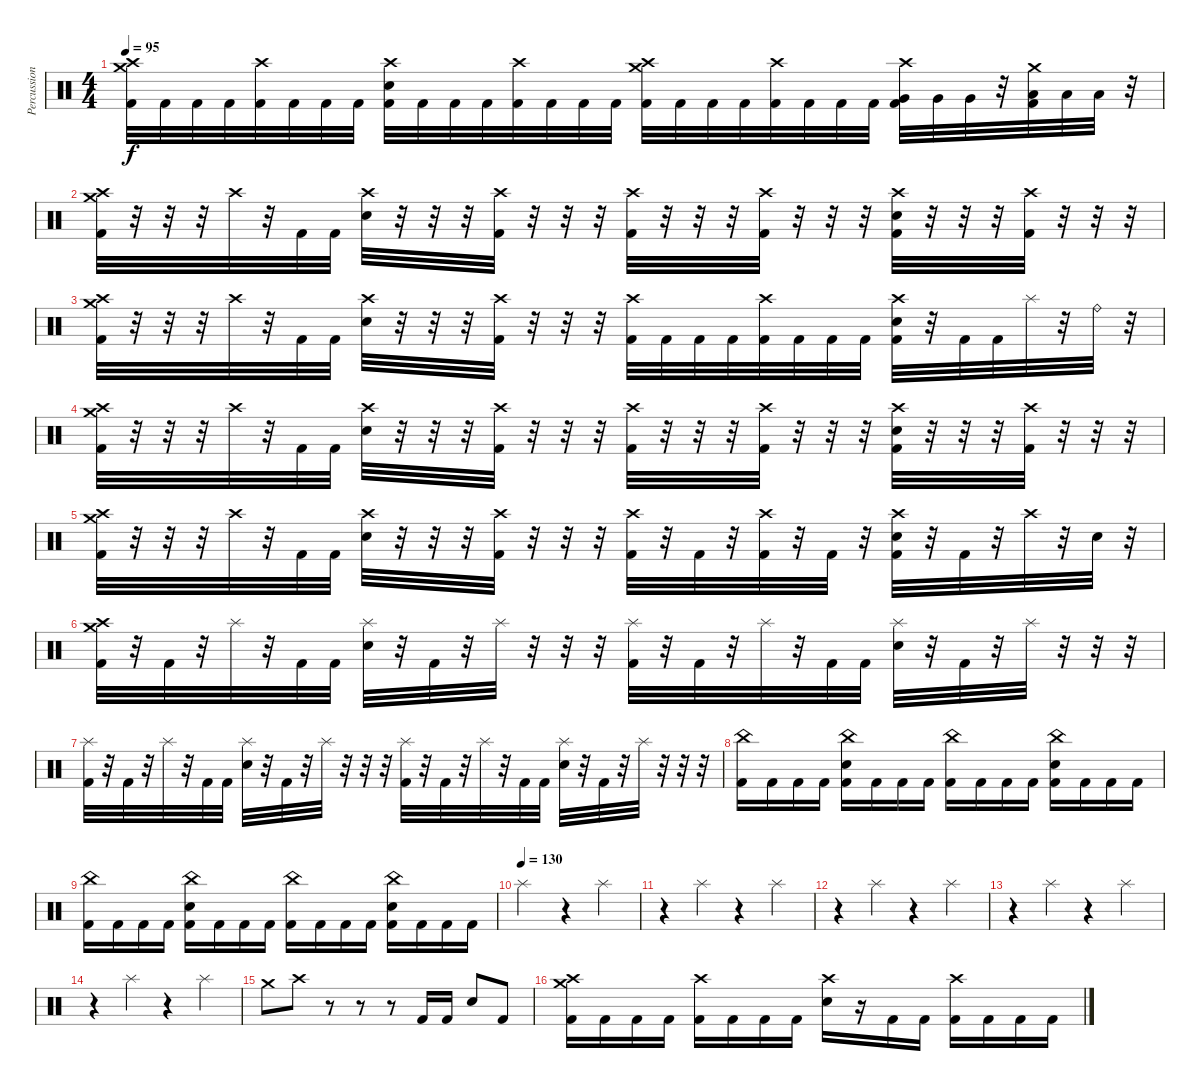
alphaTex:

\track ("Percussion" "Percussion") {instrument percussion}
\staff {score}
\articulation defaults
\ts (4 4)
\tempo 95
\clef neutral
\ks c
("Crash medium (hit)" "Crash high (hit)" "Kick (hit) 2").32{dy f} "Kick (hit) 2".32 "Kick (hit) 2".32 "Kick (hit) 2".32 ("Crash high (hit)" "Kick (hit) 2").32 "Kick (hit) 2".32 "Kick (hit) 2".32 "Kick (hit) 2".32 ("Crash high (hit)" "Electric Snare (hit)" "Kick (hit) 2").32 "Kick (hit) 2".32 "Kick (hit) 2".32 "Kick (hit) 2".32 ("Crash high (hit)" "Kick (hit) 2").32 "Kick (hit) 2".32 "Kick (hit) 2".32 "Kick (hit) 2".32 ("Crash medium (hit)" "Crash high (hit)" "Kick (hit) 2").32 "Kick (hit) 2".32 "Kick (hit) 2".32 "Kick (hit) 2".32 ("Crash high (hit)" "Kick (hit) 2").32 "Kick (hit) 2".32 "Kick (hit) 2".32 "Kick (hit) 2".32 ("Crash high (hit)" "Very Low Tom (hit)" "Kick (hit) 2").32 "Very Low Tom (hit)".32 "Very Low Tom (hit)".32 r.32 ("Crash medium (hit)" "Low Floor Tom (hit)" "Kick (hit) 2").32 "Low Floor Tom (hit)".32 "Low Floor Tom (hit)".32 r.32 |
("Crash medium (hit)" "Crash high (hit)" "Kick (hit) 2").32 r.32 r.32 r.32 "Crash high (hit)".32 r.32 "Kick (hit) 2".32 "Kick (hit) 2".32 ("Crash high (hit)" "Electric Snare (hit)").32 r.32 r.32 r.32 ("Crash high (hit)" "Kick (hit) 2").32 r.32 r.32 r.32 ("Crash high (hit)" "Kick (hit) 2").32 r.32 r.32 r.32 ("Crash high (hit)" "Kick (hit) 2").32 r.32 r.32 r.32 ("Crash high (hit)" "Electric Snare (hit)" "Kick (hit) 2").32 r.32 r.32 r.32 ("Crash high (hit)" "Kick (hit) 2").32 r.32 r.32 r.32 |
("Crash medium (hit)" "Crash high (hit)" "Kick (hit) 2").32 r.32 r.32 r.32 "Crash high (hit)".32 r.32 "Kick (hit) 2".32 "Kick (hit) 2".32 ("Crash high (hit)" "Electric Snare (hit)").32 r.32 r.32 r.32 ("Crash high (hit)" "Kick (hit) 2").32 r.32 r.32 r.32 ("Crash high (hit)" "Kick (hit) 2").32 "Kick (hit) 2".32 "Kick (hit) 2".32 "Kick (hit) 2".32 ("Crash high (hit)" "Kick (hit) 2").32 "Kick (hit) 2".32 "Kick (hit) 2".32 "Kick (hit) 2".32 ("Crash high (hit)" "Electric Snare (hit)" "Kick (hit) 2").32 r.32 "Kick (hit) 2".32 "Kick (hit) 2".32 "Splash (hit)".32 r.32 "Ride (bell)".32 r.32 |
("Crash medium (hit)" "Crash high (hit)" "Kick (hit) 2").32 r.32 r.32 r.32 "Crash high (hit)".32 r.32 "Kick (hit) 2".32 "Kick (hit) 2".32 ("Crash high (hit)" "Electric Snare (hit)").32 r.32 r.32 r.32 ("Crash high (hit)" "Kick (hit) 2").32 r.32 r.32 r.32 ("Crash high (hit)" "Kick (hit) 2").32 r.32 r.32 r.32 ("Crash high (hit)" "Kick (hit) 2").32 r.32 r.32 r.32 ("Crash high (hit)" "Electric Snare (hit)" "Kick (hit) 2").32 r.32 r.32 r.32 ("Crash high (hit)" "Kick (hit) 2").32 r.32 r.32 r.32 |
("Crash medium (hit)" "Crash high (hit)" "Kick (hit) 2").32 r.32 r.32 r.32 "Crash high (hit)".32 r.32 "Kick (hit) 2".32 "Kick (hit) 2".32 ("Crash high (hit)" "Electric Snare (hit)").32 r.32 r.32 r.32 ("Crash high (hit)" "Kick (hit) 2").32 r.32 r.32 r.32 ("Crash high (hit)" "Kick (hit) 2").32 r.32 "Kick (hit) 2".32 r.32 ("Crash high (hit)" "Kick (hit) 2").32 r.32 "Kick (hit) 2".32 r.32 ("Crash high (hit)" "Electric Snare (hit)" "Kick (hit) 2").32 r.32 "Kick (hit) 2".32 r.32 "Crash high (hit)".32 r.32 "Electric Snare (hit)".32 r.32 |
("Crash medium (hit)" "Crash high (hit)" "Kick (hit) 2").32 r.32 "Kick (hit) 2".32 r.32 "Splash (hit)".32 r.32 "Kick (hit) 2".32 "Kick (hit) 2".32 ("Splash (hit)" "Electric Snare (hit)").32 r.32 "Kick (hit) 2".32 r.32 "Splash (hit)".32 r.32 r.32 r.32 ("Splash (hit)" "Kick (hit) 2").32 r.32 "Kick (hit) 2".32 r.32 "Splash (hit)".32 r.32 "Kick (hit) 2".32 "Kick (hit) 2".32 ("Splash (hit)" "Electric Snare (hit)").32 r.32 "Kick (hit) 2".32 r.32 "Splash (hit)".32 r.32 r.32 r.32 |
("Splash (hit)" "Kick (hit) 2").32 r.32 "Kick (hit) 2".32 r.32 "Splash (hit)".32 r.32 "Kick (hit) 2".32 "Kick (hit) 2".32 ("Splash (hit)" "Electric Snare (hit)").32 r.32 "Kick (hit) 2".32 r.32 "Splash (hit)".32 r.32 r.32 r.32 ("Splash (hit)" "Kick (hit) 2").32 r.32 "Kick (hit) 2".32 r.32 "Splash (hit)".32 r.32 "Kick (hit) 2".32 "Kick (hit) 2".32 ("Splash (hit)" "Electric Snare (hit)").32 r.32 "Kick (hit) 2".32 r.32 "Splash (hit)".32 r.32 r.32 r.32 |
("China (hit)" "Kick (hit) 2").16 "Kick (hit) 2".16 "Kick (hit) 2".16 "Kick (hit) 2".16 ("China (hit)" "Electric Snare (hit)" "Kick (hit) 2").16 "Kick (hit) 2".16 "Kick (hit) 2".16 "Kick (hit) 2".16 ("China (hit)" "Kick (hit) 2").16 "Kick (hit) 2".16 "Kick (hit) 2".16 "Kick (hit) 2".16 ("China (hit)" "Electric Snare (hit)" "Kick (hit) 2").16 "Kick (hit) 2".16 "Kick (hit) 2".16 "Kick (hit) 2".16 |
("China (hit)" "Kick (hit) 2").16 "Kick (hit) 2".16 "Kick (hit) 2".16 "Kick (hit) 2".16 ("China (hit)" "Electric Snare (hit)" "Kick (hit) 2").16 "Kick (hit) 2".16 "Kick (hit) 2".16 "Kick (hit) 2".16 ("China (hit)" "Kick (hit) 2").16 "Kick (hit) 2".16 "Kick (hit) 2".16 "Kick (hit) 2".16 ("China (hit)" "Electric Snare (hit)" "Kick (hit) 2").16 "Kick (hit) 2".16 "Kick (hit) 2".16 "Kick (hit) 2".16 |
\tempo (130)
"Splash (hit)".2 r.4 "Splash (hit)".4 |
r.4 "Splash (hit)".4 r.4 "Splash (hit)".4 |
r.4 "Splash (hit)".4 r.4 "Splash (hit)".4 |
r.4 "Splash (hit)".4 r.4 "Splash (hit)".4 |
r.4 "Splash (hit)".4 r.4 "Splash (hit)".4 |
"Crash medium (hit)".8 "Crash high (hit)".8 r.8 r.8 r.8 "Kick (hit) 2".16 "Kick (hit) 2".16 "Electric Snare (hit)".8 "Kick (hit) 2".8 |
("Crash medium (hit)" "Crash high (hit)" "Kick (hit) 2").16 "Kick (hit) 2".16 "Kick (hit) 2".16 "Kick (hit) 2".16 ("Crash high (hit)" "Kick (hit) 2").16 "Kick (hit) 2".16 "Kick (hit) 2".16 "Kick (hit) 2".16 ("Crash high (hit)" "Electric Snare (hit)").16 r.16 "Kick (hit) 2".16 "Kick (hit) 2".16 ("Crash high (hit)" "Kick (hit) 2").16 "Kick (hit) 2".16 "Kick (hit) 2".16 "Kick (hit) 2".16
